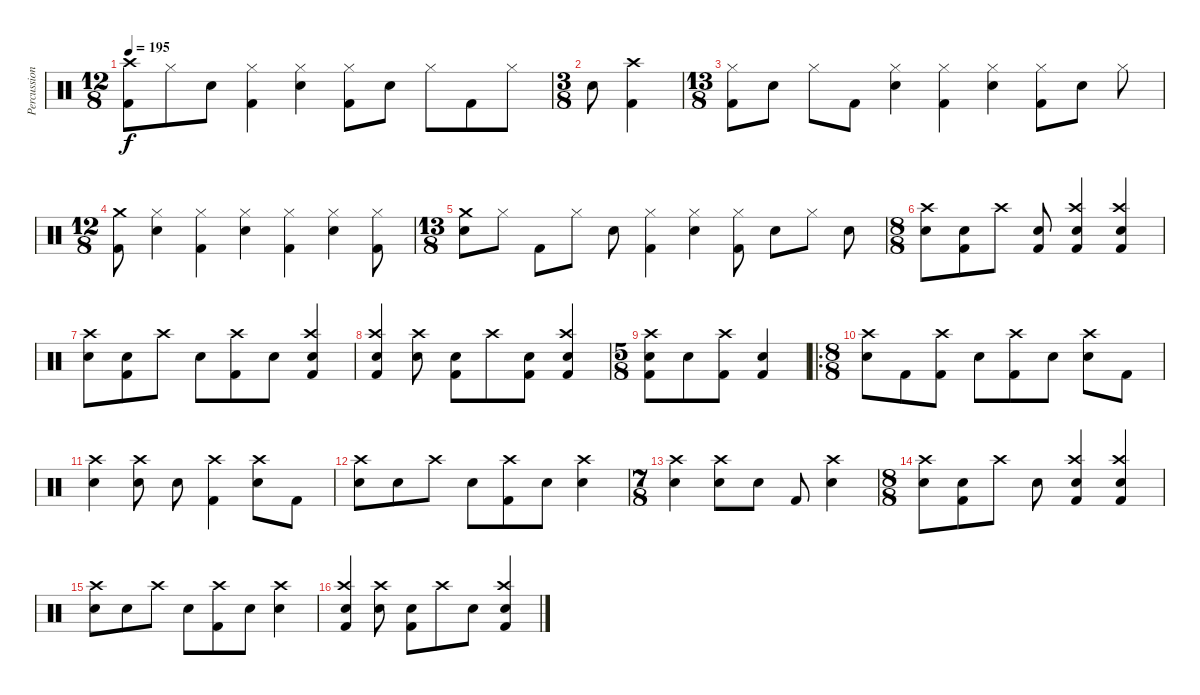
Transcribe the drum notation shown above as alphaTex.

\track ("Percussion" "Percussion") {instrument percussion}
\staff {score}
\articulation defaults
\ts (12 8)
\tempo 195
\clef neutral
\ks c
("Kick (hit) 2" "Crash high (hit)").8{dy f} "Hi-Hat (closed)".8 "Electric Snare (hit)".8 ("Kick (hit) 2" "Hi-Hat (closed)").4 ("Hi-Hat (closed)" "Electric Snare (hit)").4 ("Kick (hit) 2" "Hi-Hat (closed)").8 "Electric Snare (hit)".8 "Hi-Hat (closed)".8 "Kick (hit) 2".8 "Hi-Hat (closed)".8 |
\ts (3 8)
"Electric Snare (hit)".8 ("Kick (hit) 2" "Crash high (hit)").4 |
\ts (13 8)
("Kick (hit) 2" "Hi-Hat (closed)").8 "Electric Snare (hit)".8 "Hi-Hat (closed)".8 "Kick (hit) 2".8 ("Hi-Hat (closed)" "Electric Snare (hit)").4 ("Kick (hit) 2" "Hi-Hat (closed)").4 ("Hi-Hat (closed)" "Electric Snare (hit)").4 ("Kick (hit) 2" "Hi-Hat (closed)").8 "Electric Snare (hit)".8 "Hi-Hat (closed)".8 |
\ts (12 8)
("Kick (hit) 2" "Crash medium (hit)").8 ("Hi-Hat (closed)" "Electric Snare (hit)").4 ("Kick (hit) 2" "Hi-Hat (closed)").4 ("Hi-Hat (closed)" "Electric Snare (hit)").4 ("Kick (hit) 2" "Hi-Hat (closed)").4 ("Hi-Hat (closed)" "Electric Snare (hit)").4 ("Kick (hit) 2" "Hi-Hat (closed)").8 |
\ts (13 8)
("Crash medium (hit)" "Electric Snare (hit)").8 "Hi-Hat (closed)".8 "Kick (hit) 2".8 "Hi-Hat (closed)".8 "Electric Snare (hit)".8 ("Kick (hit) 2" "Hi-Hat (closed)").4 ("Hi-Hat (closed)" "Electric Snare (hit)").4 ("Kick (hit) 2" "Hi-Hat (closed)").8 "Electric Snare (hit)".8 "Hi-Hat (closed)".8 "Electric Snare (hit)".8 |
\ts (8 8)
("Crash high (hit)" "Electric Snare (hit)").8 ("Kick (hit) 2" "Electric Snare (hit)").8 "Crash high (hit)".8 ("Kick (hit) 2" "Electric Snare (hit)").8 ("Kick (hit) 2" "Crash high (hit)" "Electric Snare (hit)").4 ("Kick (hit) 2" "Crash high (hit)" "Electric Snare (hit)").4 |
("Crash high (hit)" "Electric Snare (hit)").8 ("Kick (hit) 2" "Electric Snare (hit)").8 "Crash high (hit)".8 "Electric Snare (hit)".8 ("Kick (hit) 2" "Crash high (hit)").8 "Electric Snare (hit)".8 ("Kick (hit) 2" "Crash high (hit)" "Electric Snare (hit)").4 |
("Kick (hit) 2" "Crash high (hit)" "Electric Snare (hit)").4 ("Crash high (hit)" "Electric Snare (hit)").8 ("Kick (hit) 2" "Electric Snare (hit)").8 "Crash high (hit)".8 ("Kick (hit) 2" "Electric Snare (hit)").8 ("Kick (hit) 2" "Crash high (hit)" "Electric Snare (hit)").4 |
\ts (5 8)
("Kick (hit) 2" "Crash high (hit)" "Electric Snare (hit)").8 "Electric Snare (hit)".8 ("Kick (hit) 2" "Crash high (hit)").8 ("Kick (hit) 2" "Electric Snare (hit)").4 |
\ro
\ts (8 8)
("Crash high (hit)" "Electric Snare (hit)").8 "Kick (hit) 2".8 ("Kick (hit) 2" "Crash high (hit)").8 "Electric Snare (hit)".8 ("Kick (hit) 2" "Crash high (hit)").8 "Electric Snare (hit)".8 ("Crash high (hit)" "Electric Snare (hit)").8 "Kick (hit) 2".8 |
("Crash high (hit)" "Electric Snare (hit)").4 ("Crash high (hit)" "Electric Snare (hit)").8 "Electric Snare (hit)".8 ("Kick (hit) 2" "Crash high (hit)").4 ("Crash high (hit)" "Electric Snare (hit)").8 "Kick (hit) 2".8 |
("Crash high (hit)" "Electric Snare (hit)").8 "Electric Snare (hit)".8 "Crash high (hit)".8 "Electric Snare (hit)".8 ("Kick (hit) 2" "Crash high (hit)").8 "Electric Snare (hit)".8 ("Crash high (hit)" "Electric Snare (hit)").4 |
\ts (7 8)
("Crash high (hit)" "Electric Snare (hit)").4 ("Crash high (hit)" "Electric Snare (hit)").8 "Electric Snare (hit)".8 "Kick (hit) 2".8 ("Crash high (hit)" "Electric Snare (hit)").4 |
\ts (8 8)
("Crash high (hit)" "Electric Snare (hit)").8 ("Kick (hit) 2" "Electric Snare (hit)").8 "Crash high (hit)".8 "Electric Snare (hit)".8 ("Kick (hit) 2" "Crash high (hit)" "Electric Snare (hit)").4 ("Kick (hit) 2" "Crash high (hit)" "Electric Snare (hit)").4 |
("Crash high (hit)" "Electric Snare (hit)").8 "Electric Snare (hit)".8 "Crash high (hit)".8 "Electric Snare (hit)".8 ("Kick (hit) 2" "Crash high (hit)").8 "Electric Snare (hit)".8 ("Crash high (hit)" "Electric Snare (hit)").4 |
("Kick (hit) 2" "Crash high (hit)" "Electric Snare (hit)").4 ("Crash high (hit)" "Electric Snare (hit)").8 ("Kick (hit) 2" "Electric Snare (hit)").8 "Crash high (hit)".8 "Electric Snare (hit)".8 ("Kick (hit) 2" "Crash high (hit)" "Electric Snare (hit)").4
